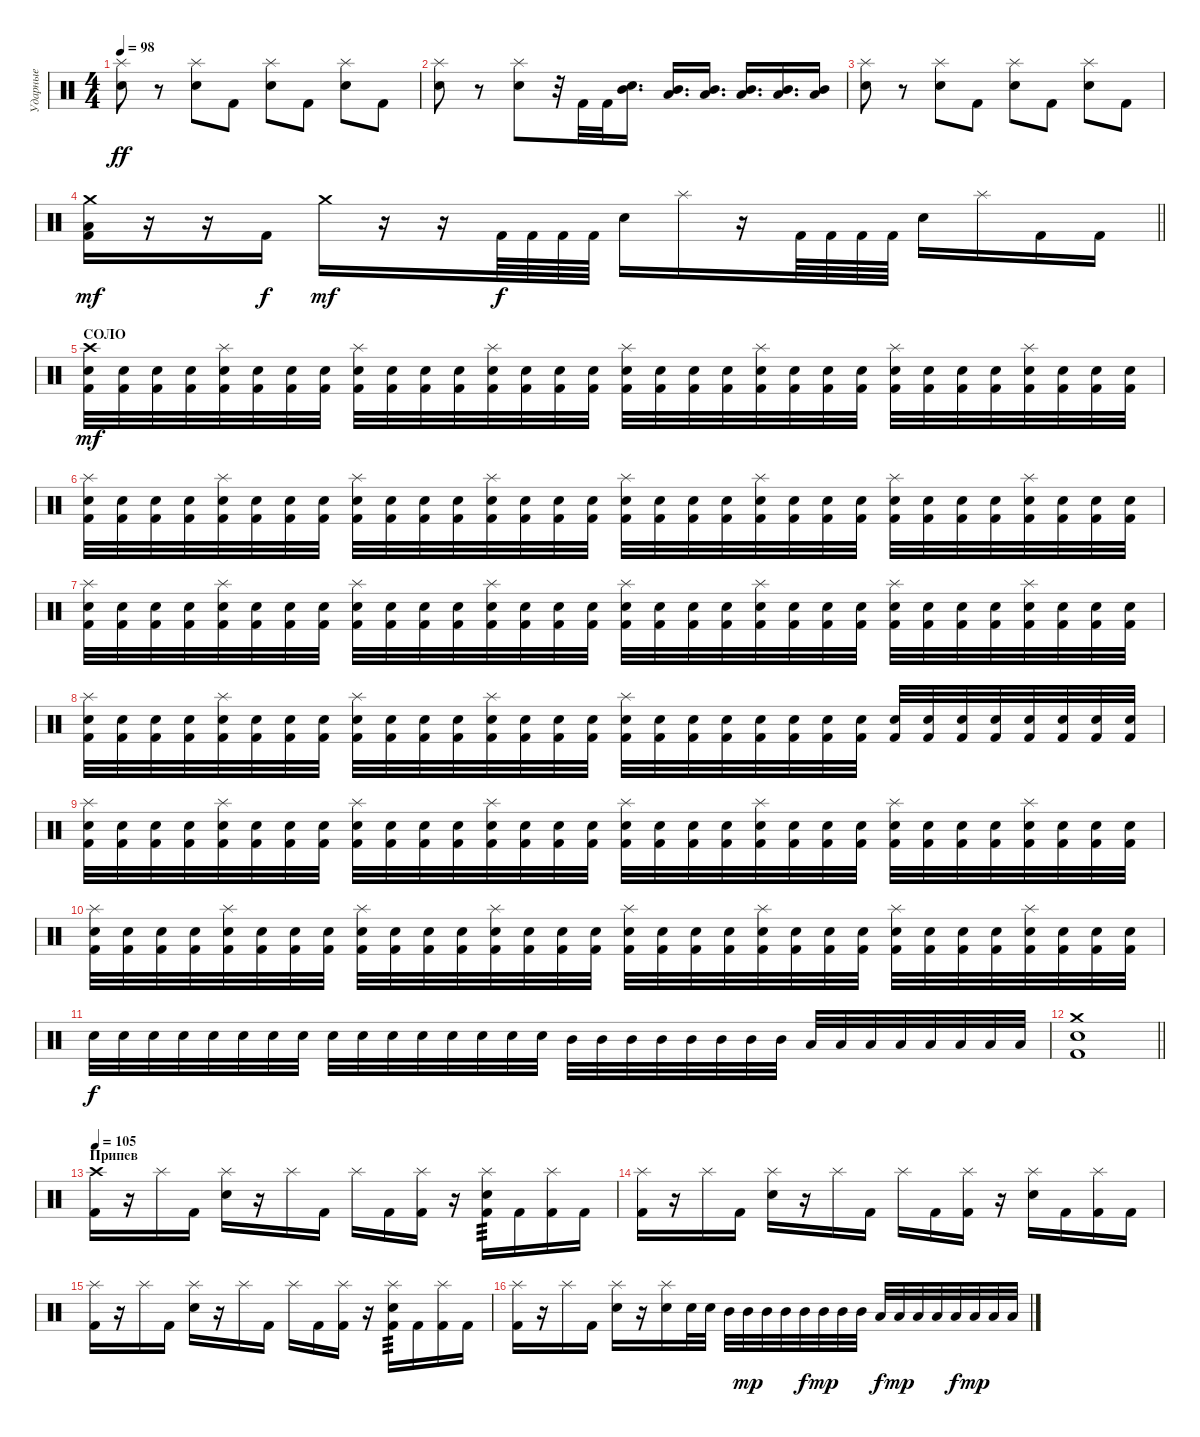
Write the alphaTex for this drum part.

\track ("Ударные" "Ударные") {instrument percussion}
\staff {score}
\articulation defaults
\ts (4 4)
\tempo 98
\clef neutral
\ks c
("Splash (hit)" "Electric Snare (hit)").8{dy ff} r.8 ("Splash (hit)" "Electric Snare (hit)").8 "Kick (hit) 2".8 ("Splash (hit)" "Electric Snare (hit)").8 "Kick (hit) 2".8 ("Splash (hit)" "Electric Snare (hit)").8 "Kick (hit) 2".8 |
("Splash (hit)" "Electric Snare (hit)").8 r.8 ("Splash (hit)" "Electric Snare (hit)").8 r.32 "Kick (hit) 2".32 "Kick (hit) 2".32 ("Electric Snare (hit)" "Mid Tom (hit)").16{d} ("Low Tom (hit)" "Mid Tom (hit)").16{d} ("Low Tom (hit)" "Mid Tom (hit)").16{d} ("Low Tom (hit)" "Mid Tom (hit)").16{d} ("Low Tom (hit)" "Mid Tom (hit)").16{d} ("Low Tom (hit)" "Mid Tom (hit)").16 |
("Splash (hit)" "Electric Snare (hit)").8 r.8 ("Splash (hit)" "Electric Snare (hit)").8 "Kick (hit) 2".8 ("Splash (hit)" "Electric Snare (hit)").8 "Kick (hit) 2".8 ("Splash (hit)" "Electric Snare (hit)").8 "Kick (hit) 2".8 |
\barLineRight lightlight
("Crash medium (hit)" "Low Tom (hit)" "Kick (hit) 2").16{dy mf} r.16 r.16 "Kick (hit) 2".16{dy f} "Crash medium (hit)".16{dy mf} r.16 r.16 "Kick (hit) 2".64{dy f} "Kick (hit) 2".64 "Kick (hit) 2".64 "Kick (hit) 2".64 "Electric Snare (hit)".16 "Splash (hit)".16 r.16 "Kick (hit) 2".64 "Kick (hit) 2".64 "Kick (hit) 2".64 "Kick (hit) 2".64 "Electric Snare (hit)".16 "Splash (hit)".16 "Kick (hit) 2".16 "Kick (hit) 2".16 |
\section ("" "СОЛО")
("Crash high (hit)" "Electric Snare (hit)" "Kick (hit) 2").32{dy mf} ("Electric Snare (hit)" "Kick (hit) 2").32 ("Electric Snare (hit)" "Kick (hit) 2").32 ("Electric Snare (hit)" "Kick (hit) 2").32 ("Splash (hit)" "Electric Snare (hit)" "Kick (hit) 2").32 ("Electric Snare (hit)" "Kick (hit) 2").32 ("Electric Snare (hit)" "Kick (hit) 2").32 ("Electric Snare (hit)" "Kick (hit) 2").32 ("Splash (hit)" "Electric Snare (hit)" "Kick (hit) 2").32 ("Electric Snare (hit)" "Kick (hit) 2").32 ("Electric Snare (hit)" "Kick (hit) 2").32 ("Electric Snare (hit)" "Kick (hit) 2").32 ("Splash (hit)" "Electric Snare (hit)" "Kick (hit) 2").32 ("Electric Snare (hit)" "Kick (hit) 2").32 ("Electric Snare (hit)" "Kick (hit) 2").32 ("Electric Snare (hit)" "Kick (hit) 2").32 ("Splash (hit)" "Electric Snare (hit)" "Kick (hit) 2").32 ("Electric Snare (hit)" "Kick (hit) 2").32 ("Electric Snare (hit)" "Kick (hit) 2").32 ("Electric Snare (hit)" "Kick (hit) 2").32 ("Splash (hit)" "Electric Snare (hit)" "Kick (hit) 2").32 ("Electric Snare (hit)" "Kick (hit) 2").32 ("Electric Snare (hit)" "Kick (hit) 2").32 ("Electric Snare (hit)" "Kick (hit) 2").32 ("Splash (hit)" "Electric Snare (hit)" "Kick (hit) 2").32 ("Electric Snare (hit)" "Kick (hit) 2").32 ("Electric Snare (hit)" "Kick (hit) 2").32 ("Electric Snare (hit)" "Kick (hit) 2").32 ("Splash (hit)" "Electric Snare (hit)" "Kick (hit) 2").32 ("Electric Snare (hit)" "Kick (hit) 2").32 ("Electric Snare (hit)" "Kick (hit) 2").32 ("Electric Snare (hit)" "Kick (hit) 2").32 |
("Splash (hit)" "Electric Snare (hit)" "Kick (hit) 2").32 ("Electric Snare (hit)" "Kick (hit) 2").32 ("Electric Snare (hit)" "Kick (hit) 2").32 ("Electric Snare (hit)" "Kick (hit) 2").32 ("Splash (hit)" "Electric Snare (hit)" "Kick (hit) 2").32 ("Electric Snare (hit)" "Kick (hit) 2").32 ("Electric Snare (hit)" "Kick (hit) 2").32 ("Electric Snare (hit)" "Kick (hit) 2").32 ("Splash (hit)" "Electric Snare (hit)" "Kick (hit) 2").32 ("Electric Snare (hit)" "Kick (hit) 2").32 ("Electric Snare (hit)" "Kick (hit) 2").32 ("Electric Snare (hit)" "Kick (hit) 2").32 ("Splash (hit)" "Electric Snare (hit)" "Kick (hit) 2").32 ("Electric Snare (hit)" "Kick (hit) 2").32 ("Electric Snare (hit)" "Kick (hit) 2").32 ("Electric Snare (hit)" "Kick (hit) 2").32 ("Splash (hit)" "Electric Snare (hit)" "Kick (hit) 2").32 ("Electric Snare (hit)" "Kick (hit) 2").32 ("Electric Snare (hit)" "Kick (hit) 2").32 ("Electric Snare (hit)" "Kick (hit) 2").32 ("Splash (hit)" "Electric Snare (hit)" "Kick (hit) 2").32 ("Electric Snare (hit)" "Kick (hit) 2").32 ("Electric Snare (hit)" "Kick (hit) 2").32 ("Electric Snare (hit)" "Kick (hit) 2").32 ("Splash (hit)" "Electric Snare (hit)" "Kick (hit) 2").32 ("Electric Snare (hit)" "Kick (hit) 2").32 ("Electric Snare (hit)" "Kick (hit) 2").32 ("Electric Snare (hit)" "Kick (hit) 2").32 ("Splash (hit)" "Electric Snare (hit)" "Kick (hit) 2").32 ("Electric Snare (hit)" "Kick (hit) 2").32 ("Electric Snare (hit)" "Kick (hit) 2").32 ("Electric Snare (hit)" "Kick (hit) 2").32 |
("Splash (hit)" "Electric Snare (hit)" "Kick (hit) 2").32 ("Electric Snare (hit)" "Kick (hit) 2").32 ("Electric Snare (hit)" "Kick (hit) 2").32 ("Electric Snare (hit)" "Kick (hit) 2").32 ("Splash (hit)" "Electric Snare (hit)" "Kick (hit) 2").32 ("Electric Snare (hit)" "Kick (hit) 2").32 ("Electric Snare (hit)" "Kick (hit) 2").32 ("Electric Snare (hit)" "Kick (hit) 2").32 ("Splash (hit)" "Electric Snare (hit)" "Kick (hit) 2").32 ("Electric Snare (hit)" "Kick (hit) 2").32 ("Electric Snare (hit)" "Kick (hit) 2").32 ("Electric Snare (hit)" "Kick (hit) 2").32 ("Splash (hit)" "Electric Snare (hit)" "Kick (hit) 2").32 ("Electric Snare (hit)" "Kick (hit) 2").32 ("Electric Snare (hit)" "Kick (hit) 2").32 ("Electric Snare (hit)" "Kick (hit) 2").32 ("Splash (hit)" "Electric Snare (hit)" "Kick (hit) 2").32 ("Electric Snare (hit)" "Kick (hit) 2").32 ("Electric Snare (hit)" "Kick (hit) 2").32 ("Electric Snare (hit)" "Kick (hit) 2").32 ("Splash (hit)" "Electric Snare (hit)" "Kick (hit) 2").32 ("Electric Snare (hit)" "Kick (hit) 2").32 ("Electric Snare (hit)" "Kick (hit) 2").32 ("Electric Snare (hit)" "Kick (hit) 2").32 ("Splash (hit)" "Electric Snare (hit)" "Kick (hit) 2").32 ("Electric Snare (hit)" "Kick (hit) 2").32 ("Electric Snare (hit)" "Kick (hit) 2").32 ("Electric Snare (hit)" "Kick (hit) 2").32 ("Splash (hit)" "Electric Snare (hit)" "Kick (hit) 2").32 ("Electric Snare (hit)" "Kick (hit) 2").32 ("Electric Snare (hit)" "Kick (hit) 2").32 ("Electric Snare (hit)" "Kick (hit) 2").32 |
("Splash (hit)" "Electric Snare (hit)" "Kick (hit) 2").32 ("Electric Snare (hit)" "Kick (hit) 2").32 ("Electric Snare (hit)" "Kick (hit) 2").32 ("Electric Snare (hit)" "Kick (hit) 2").32 ("Splash (hit)" "Electric Snare (hit)" "Kick (hit) 2").32 ("Electric Snare (hit)" "Kick (hit) 2").32 ("Electric Snare (hit)" "Kick (hit) 2").32 ("Electric Snare (hit)" "Kick (hit) 2").32 ("Splash (hit)" "Electric Snare (hit)" "Kick (hit) 2").32 ("Electric Snare (hit)" "Kick (hit) 2").32 ("Electric Snare (hit)" "Kick (hit) 2").32 ("Electric Snare (hit)" "Kick (hit) 2").32 ("Splash (hit)" "Electric Snare (hit)" "Kick (hit) 2").32 ("Electric Snare (hit)" "Kick (hit) 2").32 ("Electric Snare (hit)" "Kick (hit) 2").32 ("Electric Snare (hit)" "Kick (hit) 2").32 ("Splash (hit)" "Electric Snare (hit)" "Kick (hit) 2").32 ("Electric Snare (hit)" "Kick (hit) 2").32 ("Electric Snare (hit)" "Kick (hit) 2").32 ("Electric Snare (hit)" "Kick (hit) 2").32 ("Electric Snare (hit)" "Kick (hit) 2").32 ("Electric Snare (hit)" "Kick (hit) 2").32 ("Electric Snare (hit)" "Kick (hit) 2").32 ("Electric Snare (hit)" "Kick (hit) 2").32 ("Electric Snare (hit)" "Kick (hit) 2").32 ("Electric Snare (hit)" "Kick (hit) 2").32 ("Electric Snare (hit)" "Kick (hit) 2").32 ("Electric Snare (hit)" "Kick (hit) 2").32 ("Electric Snare (hit)" "Kick (hit) 2").32 ("Electric Snare (hit)" "Kick (hit) 2").32 ("Electric Snare (hit)" "Kick (hit) 2").32 ("Electric Snare (hit)" "Kick (hit) 2").32 |
("Splash (hit)" "Electric Snare (hit)" "Kick (hit) 2").32 ("Electric Snare (hit)" "Kick (hit) 2").32 ("Electric Snare (hit)" "Kick (hit) 2").32 ("Electric Snare (hit)" "Kick (hit) 2").32 ("Splash (hit)" "Electric Snare (hit)" "Kick (hit) 2").32 ("Electric Snare (hit)" "Kick (hit) 2").32 ("Electric Snare (hit)" "Kick (hit) 2").32 ("Electric Snare (hit)" "Kick (hit) 2").32 ("Splash (hit)" "Electric Snare (hit)" "Kick (hit) 2").32 ("Electric Snare (hit)" "Kick (hit) 2").32 ("Electric Snare (hit)" "Kick (hit) 2").32 ("Electric Snare (hit)" "Kick (hit) 2").32 ("Splash (hit)" "Electric Snare (hit)" "Kick (hit) 2").32 ("Electric Snare (hit)" "Kick (hit) 2").32 ("Electric Snare (hit)" "Kick (hit) 2").32 ("Electric Snare (hit)" "Kick (hit) 2").32 ("Splash (hit)" "Electric Snare (hit)" "Kick (hit) 2").32 ("Electric Snare (hit)" "Kick (hit) 2").32 ("Electric Snare (hit)" "Kick (hit) 2").32 ("Electric Snare (hit)" "Kick (hit) 2").32 ("Splash (hit)" "Electric Snare (hit)" "Kick (hit) 2").32 ("Electric Snare (hit)" "Kick (hit) 2").32 ("Electric Snare (hit)" "Kick (hit) 2").32 ("Electric Snare (hit)" "Kick (hit) 2").32 ("Splash (hit)" "Electric Snare (hit)" "Kick (hit) 2").32 ("Electric Snare (hit)" "Kick (hit) 2").32 ("Electric Snare (hit)" "Kick (hit) 2").32 ("Electric Snare (hit)" "Kick (hit) 2").32 ("Splash (hit)" "Electric Snare (hit)" "Kick (hit) 2").32 ("Electric Snare (hit)" "Kick (hit) 2").32 ("Electric Snare (hit)" "Kick (hit) 2").32 ("Electric Snare (hit)" "Kick (hit) 2").32 |
("Splash (hit)" "Electric Snare (hit)" "Kick (hit) 2").32 ("Electric Snare (hit)" "Kick (hit) 2").32 ("Electric Snare (hit)" "Kick (hit) 2").32 ("Electric Snare (hit)" "Kick (hit) 2").32 ("Splash (hit)" "Electric Snare (hit)" "Kick (hit) 2").32 ("Electric Snare (hit)" "Kick (hit) 2").32 ("Electric Snare (hit)" "Kick (hit) 2").32 ("Electric Snare (hit)" "Kick (hit) 2").32 ("Splash (hit)" "Electric Snare (hit)" "Kick (hit) 2").32 ("Electric Snare (hit)" "Kick (hit) 2").32 ("Electric Snare (hit)" "Kick (hit) 2").32 ("Electric Snare (hit)" "Kick (hit) 2").32 ("Splash (hit)" "Electric Snare (hit)" "Kick (hit) 2").32 ("Electric Snare (hit)" "Kick (hit) 2").32 ("Electric Snare (hit)" "Kick (hit) 2").32 ("Electric Snare (hit)" "Kick (hit) 2").32 ("Splash (hit)" "Electric Snare (hit)" "Kick (hit) 2").32 ("Electric Snare (hit)" "Kick (hit) 2").32 ("Electric Snare (hit)" "Kick (hit) 2").32 ("Electric Snare (hit)" "Kick (hit) 2").32 ("Splash (hit)" "Electric Snare (hit)" "Kick (hit) 2").32 ("Electric Snare (hit)" "Kick (hit) 2").32 ("Electric Snare (hit)" "Kick (hit) 2").32 ("Electric Snare (hit)" "Kick (hit) 2").32 ("Splash (hit)" "Electric Snare (hit)" "Kick (hit) 2").32 ("Electric Snare (hit)" "Kick (hit) 2").32 ("Electric Snare (hit)" "Kick (hit) 2").32 ("Electric Snare (hit)" "Kick (hit) 2").32 ("Splash (hit)" "Electric Snare (hit)" "Kick (hit) 2").32 ("Electric Snare (hit)" "Kick (hit) 2").32 ("Electric Snare (hit)" "Kick (hit) 2").32 ("Electric Snare (hit)" "Kick (hit) 2").32 |
"Electric Snare (hit)".32{dy f} "Electric Snare (hit)".32 "Electric Snare (hit)".32 "Electric Snare (hit)".32 "Electric Snare (hit)".32 "Electric Snare (hit)".32 "Electric Snare (hit)".32 "Electric Snare (hit)".32 "Electric Snare (hit)".32 "Electric Snare (hit)".32 "Electric Snare (hit)".32 "Electric Snare (hit)".32 "Electric Snare (hit)".32 "Electric Snare (hit)".32 "Electric Snare (hit)".32 "Electric Snare (hit)".32 "Mid Tom (hit)".32 "Mid Tom (hit)".32 "Mid Tom (hit)".32 "Mid Tom (hit)".32 "Mid Tom (hit)".32 "Mid Tom (hit)".32 "Mid Tom (hit)".32 "Mid Tom (hit)".32 "Low Tom (hit)".32 "Low Tom (hit)".32 "Low Tom (hit)".32 "Low Tom (hit)".32 "Low Tom (hit)".32 "Low Tom (hit)".32 "Low Tom (hit)".32 "Low Tom (hit)".32 |
\barLineRight lightlight
("Crash medium (hit)" "Electric Snare (hit)" "Kick (hit) 2").1 |
\section ("" "Припев")
\tempo 105
("Crash high (hit)" "Kick (hit) 2").16 r.16 "Splash (hit)".16 "Kick (hit) 2".16 ("Splash (hit)" "Electric Snare (hit)").16 r.16 "Splash (hit)".16 "Kick (hit) 2".16 "Splash (hit)".16 "Kick (hit) 2".16 ("Splash (hit)" "Kick (hit) 2").16 r.16 ("Splash (hit)" "Electric Snare (hit)" "Kick (hit) 2").16{tp 3} "Kick (hit) 2".16 ("Splash (hit)" "Kick (hit) 2").16 "Kick (hit) 2".16 |
("Splash (hit)" "Kick (hit) 2").16 r.16 "Splash (hit)".16 "Kick (hit) 2".16 ("Splash (hit)" "Electric Snare (hit)").16 r.16 "Splash (hit)".16 "Kick (hit) 2".16 "Splash (hit)".16 "Kick (hit) 2".16 ("Splash (hit)" "Kick (hit) 2").16 r.16 ("Splash (hit)" "Electric Snare (hit)").16 "Kick (hit) 2".16 ("Splash (hit)" "Kick (hit) 2").16 "Kick (hit) 2".16 |
("Splash (hit)" "Kick (hit) 2").16 r.16 "Splash (hit)".16 "Kick (hit) 2".16 ("Splash (hit)" "Electric Snare (hit)").16 r.16 "Splash (hit)".16 "Kick (hit) 2".16 "Splash (hit)".16 "Kick (hit) 2".16 ("Splash (hit)" "Kick (hit) 2").16 r.16 ("Splash (hit)" "Electric Snare (hit)" "Kick (hit) 2").16{tp 3} "Kick (hit) 2".16 ("Splash (hit)" "Kick (hit) 2").16 "Kick (hit) 2".16 |
("Splash (hit)" "Kick (hit) 2").16 r.16 "Splash (hit)".16 "Kick (hit) 2".16 ("Splash (hit)" "Electric Snare (hit)").16 r.16 ("Splash (hit)" "Electric Snare (hit)").16 "Electric Snare (hit)".32 "Electric Snare (hit)".32 "Mid Tom (hit)".32 "Mid Tom (hit)".32{dy mp} "Mid Tom (hit)".32 "Mid Tom (hit)".32 "Mid Tom (hit)".32{dy f} "Mid Tom (hit)".32{dy mp} "Mid Tom (hit)".32 "Mid Tom (hit)".32 "Low Tom (hit)".32{dy f} "Low Tom (hit)".32{dy mp} "Low Tom (hit)".32 "Low Tom (hit)".32 "Low Tom (hit)".32{dy f} "Low Tom (hit)".32{dy mp} "Low Tom (hit)".32 "Low Tom (hit)".32
